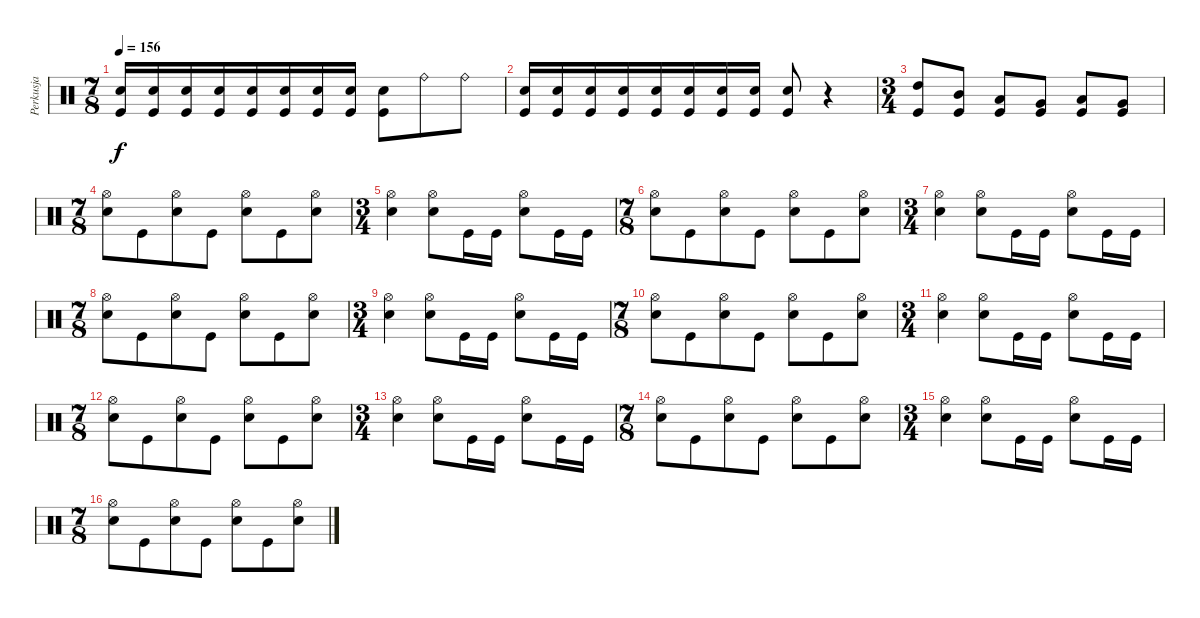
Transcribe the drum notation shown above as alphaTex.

\track ("Perkusja" "Perkusja") {instrument percussion}
\staff {score}
\articulation defaults
\ts (7 8)
\tempo 156
\clef neutral
\ks c
("Snare (hit) 2" "Kick (hit)").16{dy f} ("Snare (hit) 2" "Kick (hit)").16 ("Snare (hit) 2" "Kick (hit)").16 ("Snare (hit) 2" "Kick (hit)").16 ("Snare (hit) 2" "Kick (hit)").16 ("Snare (hit) 2" "Kick (hit)").16 ("Snare (hit) 2" "Kick (hit)").16 ("Snare (hit) 2" "Kick (hit)").16 ("Snare (hit) 2" "Kick (hit)").8 "Ride (bell)".8 "Ride (bell)".8 |
("Snare (hit) 2" "Kick (hit)").16 ("Snare (hit) 2" "Kick (hit)").16 ("Snare (hit) 2" "Kick (hit)").16 ("Snare (hit) 2" "Kick (hit)").16 ("Snare (hit) 2" "Kick (hit)").16 ("Snare (hit) 2" "Kick (hit)").16 ("Snare (hit) 2" "Kick (hit)").16 ("Snare (hit) 2" "Kick (hit)").16 ("Snare (hit) 2" "Kick (hit)").8 r.4 |
\ts (3 4)
("High Tom (hit)" "Kick (hit)").8 ("Mid Tom (hit)" "Kick (hit)").8 ("Low Tom (hit)" "Kick (hit)").8 ("Very Low Tom (hit)" "Kick (hit)").8 ("Low Tom (hit)" "Kick (hit)").8 ("Very Low Tom (hit)" "Kick (hit)").8 |
\ts (7 8)
("Hi-Hat (open)" "Snare (hit) 2").8 "Kick (hit)".8 ("Hi-Hat (open)" "Snare (hit) 2").8 "Kick (hit)".8 ("Hi-Hat (open)" "Snare (hit) 2").8 "Kick (hit)".8 ("Hi-Hat (open)" "Snare (hit) 2").8 |
\ts (3 4)
("Hi-Hat (open)" "Snare (hit) 2").4 ("Hi-Hat (open)" "Snare (hit) 2").8 "Kick (hit)".16 "Kick (hit)".16 ("Hi-Hat (open)" "Snare (hit) 2").8 "Kick (hit)".16 "Kick (hit)".16 |
\ts (7 8)
("Hi-Hat (open)" "Snare (hit) 2").8 "Kick (hit)".8 ("Hi-Hat (open)" "Snare (hit) 2").8 "Kick (hit)".8 ("Hi-Hat (open)" "Snare (hit) 2").8 "Kick (hit)".8 ("Hi-Hat (open)" "Snare (hit) 2").8 |
\ts (3 4)
("Hi-Hat (open)" "Snare (hit) 2").4 ("Hi-Hat (open)" "Snare (hit) 2").8 "Kick (hit)".16 "Kick (hit)".16 ("Hi-Hat (open)" "Snare (hit) 2").8 "Kick (hit)".16 "Kick (hit)".16 |
\ts (7 8)
("Hi-Hat (open)" "Snare (hit) 2").8 "Kick (hit)".8 ("Hi-Hat (open)" "Snare (hit) 2").8 "Kick (hit)".8 ("Hi-Hat (open)" "Snare (hit) 2").8 "Kick (hit)".8 ("Hi-Hat (open)" "Snare (hit) 2").8 |
\ts (3 4)
("Hi-Hat (open)" "Snare (hit) 2").4 ("Hi-Hat (open)" "Snare (hit) 2").8 "Kick (hit)".16 "Kick (hit)".16 ("Hi-Hat (open)" "Snare (hit) 2").8 "Kick (hit)".16 "Kick (hit)".16 |
\ts (7 8)
("Hi-Hat (open)" "Snare (hit) 2").8 "Kick (hit)".8 ("Hi-Hat (open)" "Snare (hit) 2").8 "Kick (hit)".8 ("Hi-Hat (open)" "Snare (hit) 2").8 "Kick (hit)".8 ("Hi-Hat (open)" "Snare (hit) 2").8 |
\ts (3 4)
("Hi-Hat (open)" "Snare (hit) 2").4 ("Hi-Hat (open)" "Snare (hit) 2").8 "Kick (hit)".16 "Kick (hit)".16 ("Hi-Hat (open)" "Snare (hit) 2").8 "Kick (hit)".16 "Kick (hit)".16 |
\ts (7 8)
("Hi-Hat (open)" "Snare (hit) 2").8 "Kick (hit)".8 ("Hi-Hat (open)" "Snare (hit) 2").8 "Kick (hit)".8 ("Hi-Hat (open)" "Snare (hit) 2").8 "Kick (hit)".8 ("Hi-Hat (open)" "Snare (hit) 2").8 |
\ts (3 4)
("Hi-Hat (open)" "Snare (hit) 2").4 ("Hi-Hat (open)" "Snare (hit) 2").8 "Kick (hit)".16 "Kick (hit)".16 ("Hi-Hat (open)" "Snare (hit) 2").8 "Kick (hit)".16 "Kick (hit)".16 |
\ts (7 8)
("Hi-Hat (open)" "Snare (hit) 2").8 "Kick (hit)".8 ("Hi-Hat (open)" "Snare (hit) 2").8 "Kick (hit)".8 ("Hi-Hat (open)" "Snare (hit) 2").8 "Kick (hit)".8 ("Hi-Hat (open)" "Snare (hit) 2").8 |
\ts (3 4)
("Hi-Hat (open)" "Snare (hit) 2").4 ("Hi-Hat (open)" "Snare (hit) 2").8 "Kick (hit)".16 "Kick (hit)".16 ("Hi-Hat (open)" "Snare (hit) 2").8 "Kick (hit)".16 "Kick (hit)".16 |
\ts (7 8)
("Hi-Hat (open)" "Snare (hit) 2").8 "Kick (hit)".8 ("Hi-Hat (open)" "Snare (hit) 2").8 "Kick (hit)".8 ("Hi-Hat (open)" "Snare (hit) 2").8 "Kick (hit)".8 ("Hi-Hat (open)" "Snare (hit) 2").8
